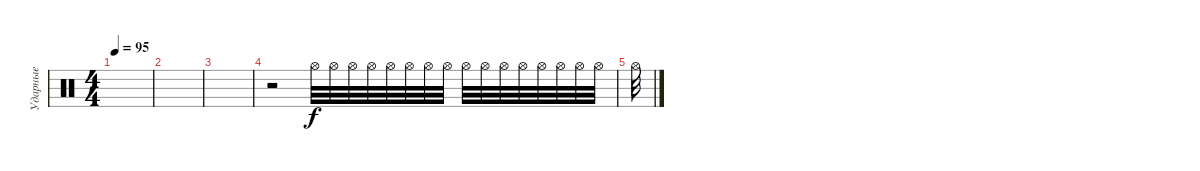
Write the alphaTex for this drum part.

\track ("Ударные" "Ударные") {instrument percussion}
\staff {score}
\articulation defaults
\ts (4 4)
\tempo 95
\clef neutral
\ks c
|
|
|
r.2{volume 3} "Hi-Hat (open)".32{volume 10} "Hi-Hat (open)".32 "Hi-Hat (open)".32 "Hi-Hat (open)".32 "Hi-Hat (open)".32 "Hi-Hat (open)".32 "Hi-Hat (open)".32 "Hi-Hat (open)".32 "Hi-Hat (open)".32 "Hi-Hat (open)".32 "Hi-Hat (open)".32 "Hi-Hat (open)".32 "Hi-Hat (open)".32 "Hi-Hat (open)".32 "Hi-Hat (open)".32 "Hi-Hat (open)".32 |
"Hi-Hat (open)".32
